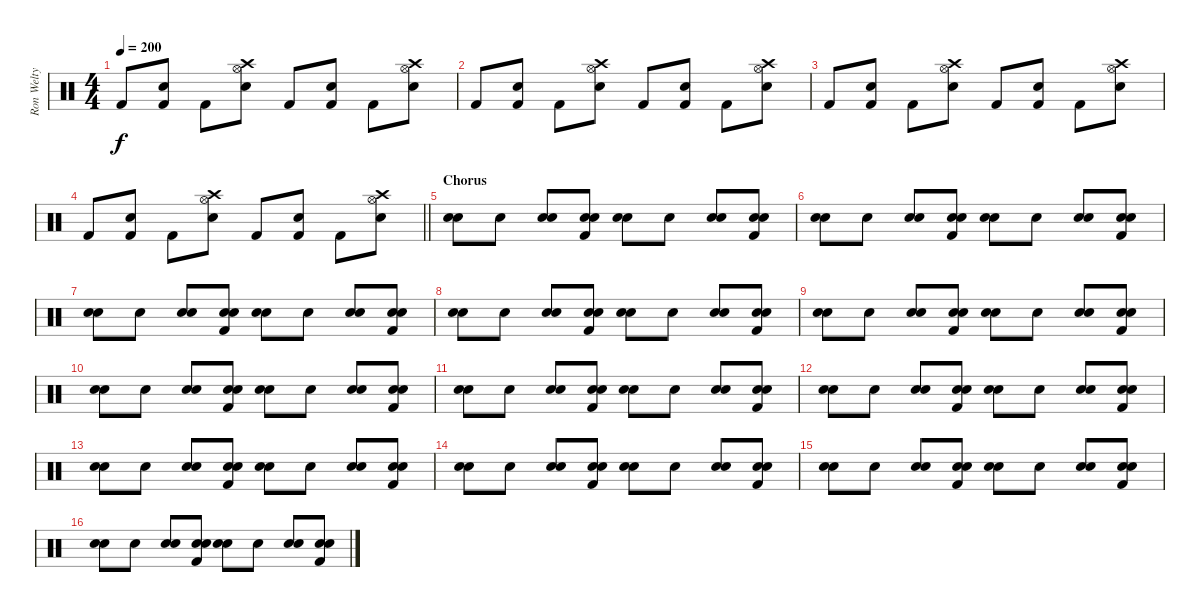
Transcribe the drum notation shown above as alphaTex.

\track ("Ron Welty" "Ron Welty") {instrument percussion}
\staff {score}
\articulation defaults
\ts (4 4)
\tempo 200
\clef neutral
\ks c "Kick (hit) 2".8{dy f}
("Kick (hit) 2" "Electric Snare (hit)").8 "Kick (hit) 2".8 ("Snare (hit) 2" "Hi-Hat (open)" "Crash high (hit)").8 "Kick (hit) 2".8 ("Kick (hit) 2" "Electric Snare (hit)").8 "Kick (hit) 2".8 ("Snare (hit) 2" "Hi-Hat (open)" "Crash high (hit)").8 |
"Kick (hit) 2".8 ("Kick (hit) 2" "Electric Snare (hit)").8 "Kick (hit) 2".8 ("Snare (hit) 2" "Hi-Hat (open)" "Crash high (hit)").8 "Kick (hit) 2".8 ("Kick (hit) 2" "Electric Snare (hit)").8 "Kick (hit) 2".8 ("Snare (hit) 2" "Hi-Hat (open)" "Crash high (hit)").8 |
"Kick (hit) 2".8 ("Kick (hit) 2" "Electric Snare (hit)").8 "Kick (hit) 2".8 ("Snare (hit) 2" "Hi-Hat (open)" "Crash high (hit)").8 "Kick (hit) 2".8 ("Kick (hit) 2" "Electric Snare (hit)").8 "Kick (hit) 2".8 ("Snare (hit) 2" "Hi-Hat (open)" "Crash high (hit)").8 |
\barLineRight lightlight "Kick (hit) 2".8
("Kick (hit) 2" "Electric Snare (hit)").8 "Kick (hit) 2".8 ("Snare (hit) 2" "Hi-Hat (open)" "Crash high (hit)").8 "Kick (hit) 2".8 ("Kick (hit) 2" "Electric Snare (hit)").8 "Kick (hit) 2".8 ("Snare (hit) 2" "Hi-Hat (open)" "Crash high (hit)").8 |
\section ("" "Chorus")
("Electric Snare (hit)" "Snare (hit) 2").8 "Electric Snare (hit)".8 ("Electric Snare (hit)" "Snare (hit) 2").8 ("Kick (hit) 2" "Snare (hit) 2" "Electric Snare (hit)").8 ("Electric Snare (hit)" "Snare (hit) 2").8 "Electric Snare (hit)".8 ("Electric Snare (hit)" "Snare (hit) 2").8 ("Kick (hit) 2" "Snare (hit) 2" "Electric Snare (hit)").8 |
("Electric Snare (hit)" "Snare (hit) 2").8 "Electric Snare (hit)".8 ("Electric Snare (hit)" "Snare (hit) 2").8 ("Kick (hit) 2" "Snare (hit) 2" "Electric Snare (hit)").8 ("Electric Snare (hit)" "Snare (hit) 2").8 "Electric Snare (hit)".8 ("Electric Snare (hit)" "Snare (hit) 2").8 ("Kick (hit) 2" "Snare (hit) 2" "Electric Snare (hit)").8 |
("Electric Snare (hit)" "Snare (hit) 2").8 "Electric Snare (hit)".8 ("Electric Snare (hit)" "Snare (hit) 2").8 ("Kick (hit) 2" "Snare (hit) 2" "Electric Snare (hit)").8 ("Electric Snare (hit)" "Snare (hit) 2").8 "Electric Snare (hit)".8 ("Electric Snare (hit)" "Snare (hit) 2").8 ("Kick (hit) 2" "Snare (hit) 2" "Electric Snare (hit)").8 |
("Electric Snare (hit)" "Snare (hit) 2").8 "Electric Snare (hit)".8 ("Electric Snare (hit)" "Snare (hit) 2").8 ("Kick (hit) 2" "Snare (hit) 2" "Electric Snare (hit)").8 ("Electric Snare (hit)" "Snare (hit) 2").8 "Electric Snare (hit)".8 ("Electric Snare (hit)" "Snare (hit) 2").8 ("Kick (hit) 2" "Snare (hit) 2" "Electric Snare (hit)").8 |
("Electric Snare (hit)" "Snare (hit) 2").8 "Electric Snare (hit)".8 ("Electric Snare (hit)" "Snare (hit) 2").8 ("Kick (hit) 2" "Snare (hit) 2" "Electric Snare (hit)").8 ("Electric Snare (hit)" "Snare (hit) 2").8 "Electric Snare (hit)".8 ("Electric Snare (hit)" "Snare (hit) 2").8 ("Kick (hit) 2" "Snare (hit) 2" "Electric Snare (hit)").8 |
("Electric Snare (hit)" "Snare (hit) 2").8 "Electric Snare (hit)".8 ("Electric Snare (hit)" "Snare (hit) 2").8 ("Kick (hit) 2" "Snare (hit) 2" "Electric Snare (hit)").8 ("Electric Snare (hit)" "Snare (hit) 2").8 "Electric Snare (hit)".8 ("Electric Snare (hit)" "Snare (hit) 2").8 ("Kick (hit) 2" "Snare (hit) 2" "Electric Snare (hit)").8 |
("Electric Snare (hit)" "Snare (hit) 2").8 "Electric Snare (hit)".8 ("Electric Snare (hit)" "Snare (hit) 2").8 ("Kick (hit) 2" "Snare (hit) 2" "Electric Snare (hit)").8 ("Electric Snare (hit)" "Snare (hit) 2").8 "Electric Snare (hit)".8 ("Electric Snare (hit)" "Snare (hit) 2").8 ("Kick (hit) 2" "Snare (hit) 2" "Electric Snare (hit)").8 |
("Electric Snare (hit)" "Snare (hit) 2").8 "Electric Snare (hit)".8 ("Electric Snare (hit)" "Snare (hit) 2").8 ("Kick (hit) 2" "Snare (hit) 2" "Electric Snare (hit)").8 ("Electric Snare (hit)" "Snare (hit) 2").8 "Electric Snare (hit)".8 ("Electric Snare (hit)" "Snare (hit) 2").8 ("Kick (hit) 2" "Snare (hit) 2" "Electric Snare (hit)").8 |
("Electric Snare (hit)" "Snare (hit) 2").8 "Electric Snare (hit)".8 ("Electric Snare (hit)" "Snare (hit) 2").8 ("Kick (hit) 2" "Snare (hit) 2" "Electric Snare (hit)").8 ("Electric Snare (hit)" "Snare (hit) 2").8 "Electric Snare (hit)".8 ("Electric Snare (hit)" "Snare (hit) 2").8 ("Kick (hit) 2" "Snare (hit) 2" "Electric Snare (hit)").8 |
("Electric Snare (hit)" "Snare (hit) 2").8 "Electric Snare (hit)".8 ("Electric Snare (hit)" "Snare (hit) 2").8 ("Kick (hit) 2" "Snare (hit) 2" "Electric Snare (hit)").8 ("Electric Snare (hit)" "Snare (hit) 2").8 "Electric Snare (hit)".8 ("Electric Snare (hit)" "Snare (hit) 2").8 ("Kick (hit) 2" "Snare (hit) 2" "Electric Snare (hit)").8 |
("Electric Snare (hit)" "Snare (hit) 2").8 "Electric Snare (hit)".8 ("Electric Snare (hit)" "Snare (hit) 2").8 ("Kick (hit) 2" "Snare (hit) 2" "Electric Snare (hit)").8 ("Electric Snare (hit)" "Snare (hit) 2").8 "Electric Snare (hit)".8 ("Electric Snare (hit)" "Snare (hit) 2").8 ("Kick (hit) 2" "Snare (hit) 2" "Electric Snare (hit)").8 |
("Electric Snare (hit)" "Snare (hit) 2").8 "Electric Snare (hit)".8 ("Electric Snare (hit)" "Snare (hit) 2").8 ("Kick (hit) 2" "Snare (hit) 2" "Electric Snare (hit)").8 ("Electric Snare (hit)" "Snare (hit) 2").8 "Electric Snare (hit)".8 ("Electric Snare (hit)" "Snare (hit) 2").8 ("Kick (hit) 2" "Snare (hit) 2" "Electric Snare (hit)").8
